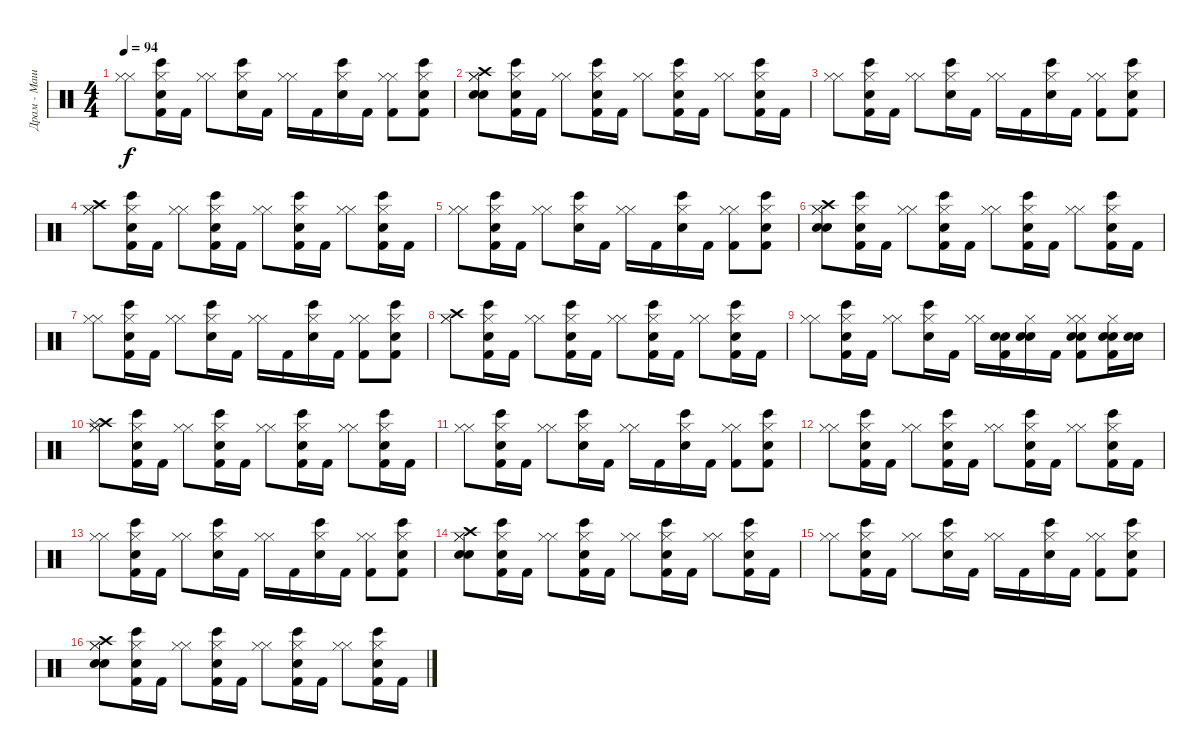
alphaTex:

\track ("Драм - Машина" "Драм - Маш") {instrument percussion}
\staff {score}
\articulation defaults
\ts (4 4)
\tempo 94
\clef neutral
\ks c
("Hi-Hat (closed)" "Hi-Hat (closed)").8{dy f} ("Hi-Hat (closed)" "Snare (hit) 2" "Bongo High (hit)" "Kick (hit) 2").16 "Kick (hit) 2".16 ("Hi-Hat (closed)" "Hi-Hat (closed)").8 ("Hi-Hat (closed)" "Bongo High (hit)" "Snare (hit) 2").16 "Kick (hit) 2".16 ("Hi-Hat (closed)" "Hi-Hat (closed)").16 "Kick (hit) 2".16 ("Hi-Hat (closed)" "Snare (hit) 2" "Bongo High (hit)").16 "Kick (hit) 2".16 ("Hi-Hat (closed)" "Hi-Hat (closed)" "Kick (hit) 2").8 ("Hi-Hat (closed)" "Bongo High (hit)" "Snare (hit) 2" "Kick (hit) 2").8 |
("Snare (hit) 2" "Electric Snare (hit)" "Hi-Hat (closed)" "Crash high (hit)" "Hi-Hat (closed)").8 ("Bongo High (hit)" "Hi-Hat (closed)" "Snare (hit) 2" "Kick (hit) 2").16 "Kick (hit) 2".16 ("Hi-Hat (closed)" "Hi-Hat (closed)").8 ("Bongo High (hit)" "Snare (hit) 2" "Hi-Hat (closed)" "Kick (hit) 2").16 "Kick (hit) 2".16 ("Hi-Hat (closed)" "Hi-Hat (closed)").8 ("Bongo High (hit)" "Hi-Hat (closed)" "Snare (hit) 2" "Kick (hit) 2").16 "Kick (hit) 2".16 ("Hi-Hat (closed)" "Hi-Hat (closed)").8 ("Hi-Hat (closed)" "Snare (hit) 2" "Bongo High (hit)" "Kick (hit) 2").16 "Kick (hit) 2".16 |
("Hi-Hat (closed)" "Hi-Hat (closed)").8 ("Hi-Hat (closed)" "Snare (hit) 2" "Bongo High (hit)" "Kick (hit) 2").16 "Kick (hit) 2".16 ("Hi-Hat (closed)" "Hi-Hat (closed)").8 ("Snare (hit) 2" "Bongo High (hit)" "Hi-Hat (closed)").16 "Kick (hit) 2".16 ("Hi-Hat (closed)" "Hi-Hat (closed)").16 "Kick (hit) 2".16 ("Hi-Hat (closed)" "Snare (hit) 2" "Bongo High (hit)").16 "Kick (hit) 2".16 ("Hi-Hat (closed)" "Hi-Hat (closed)" "Kick (hit) 2").8 ("Bongo High (hit)" "Snare (hit) 2" "Hi-Hat (closed)" "Kick (hit) 2").8 |
("Hi-Hat (closed)" "Crash high (hit)" "Hi-Hat (closed)").8 ("Hi-Hat (closed)" "Snare (hit) 2" "Bongo High (hit)" "Kick (hit) 2").16 "Kick (hit) 2".16 ("Hi-Hat (closed)" "Hi-Hat (closed)").8 ("Snare (hit) 2" "Bongo High (hit)" "Hi-Hat (closed)" "Kick (hit) 2").16 "Kick (hit) 2".16 ("Hi-Hat (closed)" "Hi-Hat (closed)").8 ("Bongo High (hit)" "Snare (hit) 2" "Hi-Hat (closed)" "Kick (hit) 2").16 "Kick (hit) 2".16 ("Hi-Hat (closed)" "Hi-Hat (closed)").8 ("Hi-Hat (closed)" "Bongo High (hit)" "Snare (hit) 2" "Kick (hit) 2").16 "Kick (hit) 2".16 |
("Hi-Hat (closed)" "Hi-Hat (closed)").8 ("Bongo High (hit)" "Snare (hit) 2" "Hi-Hat (closed)" "Kick (hit) 2").16 "Kick (hit) 2".16 ("Hi-Hat (closed)" "Hi-Hat (closed)").8 ("Snare (hit) 2" "Bongo High (hit)" "Hi-Hat (closed)").16 "Kick (hit) 2".16 ("Hi-Hat (closed)" "Hi-Hat (closed)").16 "Kick (hit) 2".16 ("Hi-Hat (closed)" "Bongo High (hit)" "Snare (hit) 2").16 "Kick (hit) 2".16 ("Hi-Hat (closed)" "Hi-Hat (closed)" "Kick (hit) 2").8 ("Hi-Hat (closed)" "Snare (hit) 2" "Bongo High (hit)" "Kick (hit) 2").8 |
("Hi-Hat (closed)" "Hi-Hat (closed)" "Crash high (hit)" "Snare (hit) 2" "Electric Snare (hit)").8 ("Hi-Hat (closed)" "Bongo High (hit)" "Snare (hit) 2" "Kick (hit) 2").16 "Kick (hit) 2".16 ("Hi-Hat (closed)" "Hi-Hat (closed)").8 ("Bongo High (hit)" "Snare (hit) 2" "Hi-Hat (closed)" "Kick (hit) 2").16 "Kick (hit) 2".16 ("Hi-Hat (closed)" "Hi-Hat (closed)").8 ("Hi-Hat (closed)" "Bongo High (hit)" "Snare (hit) 2" "Kick (hit) 2").16 "Kick (hit) 2".16 ("Hi-Hat (closed)" "Hi-Hat (closed)").8 ("Hi-Hat (closed)" "Snare (hit) 2" "Bongo High (hit)" "Kick (hit) 2").16 "Kick (hit) 2".16 |
("Hi-Hat (closed)" "Hi-Hat (closed)").8 ("Hi-Hat (closed)" "Bongo High (hit)" "Snare (hit) 2" "Kick (hit) 2").16 "Kick (hit) 2".16 ("Hi-Hat (closed)" "Hi-Hat (closed)").8 ("Bongo High (hit)" "Snare (hit) 2" "Hi-Hat (closed)").16 "Kick (hit) 2".16 ("Hi-Hat (closed)" "Hi-Hat (closed)").16 "Kick (hit) 2".16 ("Hi-Hat (closed)" "Snare (hit) 2" "Bongo High (hit)").16 "Kick (hit) 2".16 ("Hi-Hat (closed)" "Hi-Hat (closed)" "Kick (hit) 2").8 ("Snare (hit) 2" "Bongo High (hit)" "Hi-Hat (closed)" "Kick (hit) 2").8 |
("Crash high (hit)" "Hi-Hat (closed)" "Hi-Hat (closed)").8 ("Hi-Hat (closed)" "Bongo High (hit)" "Snare (hit) 2" "Kick (hit) 2").16 "Kick (hit) 2".16 ("Hi-Hat (closed)" "Hi-Hat (closed)").8 ("Snare (hit) 2" "Hi-Hat (closed)" "Bongo High (hit)" "Kick (hit) 2").16 "Kick (hit) 2".16 ("Hi-Hat (closed)" "Hi-Hat (closed)").8 ("Hi-Hat (closed)" "Bongo High (hit)" "Snare (hit) 2" "Kick (hit) 2").16 "Kick (hit) 2".16 ("Hi-Hat (closed)" "Hi-Hat (closed)").8 ("Bongo High (hit)" "Hi-Hat (closed)" "Snare (hit) 2" "Kick (hit) 2").16 "Kick (hit) 2".16 |
("Hi-Hat (closed)" "Hi-Hat (closed)").8 ("Hi-Hat (closed)" "Snare (hit) 2" "Bongo High (hit)" "Kick (hit) 2").16 "Kick (hit) 2".16 ("Hi-Hat (closed)" "Hi-Hat (closed)").8 ("Bongo High (hit)" "Hi-Hat (closed)" "Snare (hit) 2").16 "Kick (hit) 2".16 ("Hi-Hat (closed)" "Hi-Hat (closed)").16 ("Electric Snare (hit)" "Snare (hit) 2" "Kick (hit) 2").16 ("Hi-Hat (closed)" "Electric Snare (hit)" "Snare (hit) 2").16 "Kick (hit) 2".16 ("Hi-Hat (closed)" "Electric Snare (hit)" "Hi-Hat (closed)" "Snare (hit) 2" "Kick (hit) 2").8 ("Electric Snare (hit)" "Hi-Hat (closed)" "Snare (hit) 2" "Kick (hit) 2").16 ("Snare (hit) 2" "Electric Snare (hit)").16 |
("Crash high (hit)" "Splash (hit)" "Hi-Hat (closed)" "Hi-Hat (closed)").8 ("Hi-Hat (closed)" "Snare (hit) 2" "Bongo High (hit)" "Kick (hit) 2").16 "Kick (hit) 2".16 ("Hi-Hat (closed)" "Hi-Hat (closed)").8 ("Bongo High (hit)" "Snare (hit) 2" "Hi-Hat (closed)" "Kick (hit) 2").16 "Kick (hit) 2".16 ("Hi-Hat (closed)" "Hi-Hat (closed)").8 ("Hi-Hat (closed)" "Bongo High (hit)" "Snare (hit) 2" "Kick (hit) 2").16 "Kick (hit) 2".16 ("Hi-Hat (closed)" "Hi-Hat (closed)").8 ("Hi-Hat (closed)" "Snare (hit) 2" "Bongo High (hit)" "Kick (hit) 2").16 "Kick (hit) 2".16 |
("Hi-Hat (closed)" "Hi-Hat (closed)").8 ("Hi-Hat (closed)" "Snare (hit) 2" "Bongo High (hit)" "Kick (hit) 2").16 "Kick (hit) 2".16 ("Hi-Hat (closed)" "Hi-Hat (closed)").8 ("Bongo High (hit)" "Hi-Hat (closed)" "Snare (hit) 2").16 "Kick (hit) 2".16 ("Hi-Hat (closed)" "Hi-Hat (closed)").16 "Kick (hit) 2".16 ("Hi-Hat (closed)" "Bongo High (hit)" "Snare (hit) 2").16 "Kick (hit) 2".16 ("Hi-Hat (closed)" "Hi-Hat (closed)" "Kick (hit) 2").8 ("Hi-Hat (closed)" "Snare (hit) 2" "Bongo High (hit)" "Kick (hit) 2").8 |
("Hi-Hat (closed)" "Hi-Hat (closed)").8 ("Hi-Hat (closed)" "Bongo High (hit)" "Snare (hit) 2" "Kick (hit) 2").16 "Kick (hit) 2".16 ("Hi-Hat (closed)" "Hi-Hat (closed)").8 ("Snare (hit) 2" "Bongo High (hit)" "Hi-Hat (closed)" "Kick (hit) 2").16 "Kick (hit) 2".16 ("Hi-Hat (closed)" "Hi-Hat (closed)").8 ("Hi-Hat (closed)" "Bongo High (hit)" "Snare (hit) 2" "Kick (hit) 2").16 "Kick (hit) 2".16 ("Hi-Hat (closed)" "Hi-Hat (closed)").8 ("Hi-Hat (closed)" "Snare (hit) 2" "Bongo High (hit)" "Kick (hit) 2").16 "Kick (hit) 2".16 |
("Hi-Hat (closed)" "Hi-Hat (closed)").8 ("Snare (hit) 2" "Hi-Hat (closed)" "Bongo High (hit)" "Kick (hit) 2").16 "Kick (hit) 2".16 ("Hi-Hat (closed)" "Hi-Hat (closed)").8 ("Bongo High (hit)" "Hi-Hat (closed)" "Snare (hit) 2").16 "Kick (hit) 2".16 ("Hi-Hat (closed)" "Hi-Hat (closed)").16 "Kick (hit) 2".16 ("Hi-Hat (closed)" "Snare (hit) 2" "Bongo High (hit)").16 "Kick (hit) 2".16 ("Hi-Hat (closed)" "Hi-Hat (closed)" "Kick (hit) 2").8 ("Hi-Hat (closed)" "Snare (hit) 2" "Bongo High (hit)" "Kick (hit) 2").8 |
("Hi-Hat (closed)" "Electric Snare (hit)" "Hi-Hat (closed)" "Crash high (hit)" "Snare (hit) 2").8 ("Snare (hit) 2" "Hi-Hat (closed)" "Bongo High (hit)" "Kick (hit) 2").16 "Kick (hit) 2".16 ("Hi-Hat (closed)" "Hi-Hat (closed)").8 ("Bongo High (hit)" "Hi-Hat (closed)" "Snare (hit) 2" "Kick (hit) 2").16 "Kick (hit) 2".16 ("Hi-Hat (closed)" "Hi-Hat (closed)").8 ("Bongo High (hit)" "Hi-Hat (closed)" "Snare (hit) 2" "Kick (hit) 2").16 "Kick (hit) 2".16 ("Hi-Hat (closed)" "Hi-Hat (closed)").8 ("Snare (hit) 2" "Bongo High (hit)" "Hi-Hat (closed)" "Kick (hit) 2").16 "Kick (hit) 2".16 |
("Hi-Hat (closed)" "Hi-Hat (closed)").8 ("Snare (hit) 2" "Hi-Hat (closed)" "Bongo High (hit)" "Kick (hit) 2").16 "Kick (hit) 2".16 ("Hi-Hat (closed)" "Hi-Hat (closed)").8 ("Hi-Hat (closed)" "Bongo High (hit)" "Snare (hit) 2").16 "Kick (hit) 2".16 ("Hi-Hat (closed)" "Hi-Hat (closed)").16 "Kick (hit) 2".16 ("Bongo High (hit)" "Snare (hit) 2" "Hi-Hat (closed)").16 "Kick (hit) 2".16 ("Hi-Hat (closed)" "Hi-Hat (closed)" "Kick (hit) 2").8 ("Bongo High (hit)" "Snare (hit) 2" "Hi-Hat (closed)" "Kick (hit) 2").8 |
("Snare (hit) 2" "Hi-Hat (closed)" "Hi-Hat (closed)" "Crash high (hit)" "Electric Snare (hit)").8 ("Snare (hit) 2" "Hi-Hat (closed)" "Bongo High (hit)" "Kick (hit) 2").16 "Kick (hit) 2".16 ("Hi-Hat (closed)" "Hi-Hat (closed)").8 ("Bongo High (hit)" "Hi-Hat (closed)" "Snare (hit) 2" "Kick (hit) 2").16 "Kick (hit) 2".16 ("Hi-Hat (closed)" "Hi-Hat (closed)").8 ("Snare (hit) 2" "Bongo High (hit)" "Hi-Hat (closed)" "Kick (hit) 2").16 "Kick (hit) 2".16 ("Hi-Hat (closed)" "Hi-Hat (closed)").8 ("Hi-Hat (closed)" "Snare (hit) 2" "Bongo High (hit)" "Kick (hit) 2").16 "Kick (hit) 2".16
